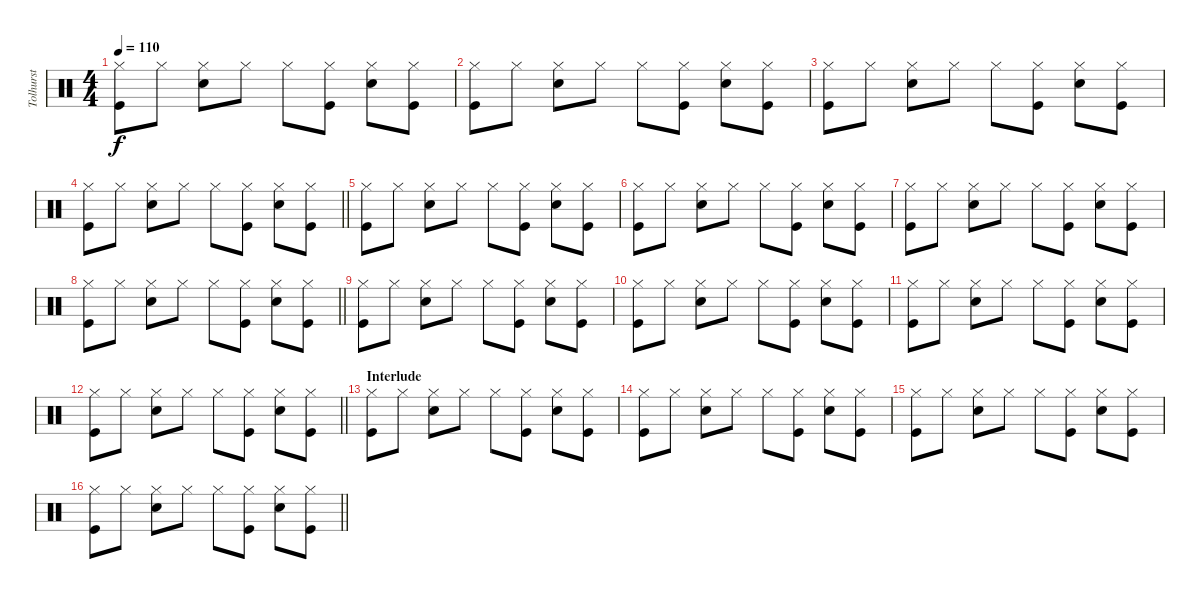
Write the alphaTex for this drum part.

\track ("Tolhurst" "Tolhurst") {instrument percussion}
\staff {score}
\articulation defaults
\ts (4 4)
\tempo 110
\clef neutral
\ks c
("Hi-Hat (closed)" "Kick (hit)").8{dy f} "Hi-Hat (closed)".8 ("Hi-Hat (closed)" "Electric Snare (hit)").8 "Hi-Hat (closed)".8 "Hi-Hat (closed)".8 ("Hi-Hat (closed)" "Kick (hit)").8 ("Hi-Hat (closed)" "Electric Snare (hit)").8 ("Hi-Hat (closed)" "Kick (hit)").8 |
("Hi-Hat (closed)" "Kick (hit)").8 "Hi-Hat (closed)".8 ("Hi-Hat (closed)" "Electric Snare (hit)").8 "Hi-Hat (closed)".8 "Hi-Hat (closed)".8 ("Hi-Hat (closed)" "Kick (hit)").8 ("Hi-Hat (closed)" "Electric Snare (hit)").8 ("Hi-Hat (closed)" "Kick (hit)").8 |
("Hi-Hat (closed)" "Kick (hit)").8 "Hi-Hat (closed)".8 ("Hi-Hat (closed)" "Electric Snare (hit)").8 "Hi-Hat (closed)".8 "Hi-Hat (closed)".8 ("Hi-Hat (closed)" "Kick (hit)").8 ("Hi-Hat (closed)" "Electric Snare (hit)").8 ("Hi-Hat (closed)" "Kick (hit)").8 |
\barLineRight lightlight
("Hi-Hat (closed)" "Kick (hit)").8 "Hi-Hat (closed)".8 ("Hi-Hat (closed)" "Electric Snare (hit)").8 "Hi-Hat (closed)".8 "Hi-Hat (closed)".8 ("Hi-Hat (closed)" "Kick (hit)").8 ("Hi-Hat (closed)" "Electric Snare (hit)").8 ("Hi-Hat (closed)" "Kick (hit)").8 |
("Hi-Hat (closed)" "Kick (hit)").8 "Hi-Hat (closed)".8 ("Hi-Hat (closed)" "Electric Snare (hit)").8 "Hi-Hat (closed)".8 "Hi-Hat (closed)".8 ("Hi-Hat (closed)" "Kick (hit)").8 ("Hi-Hat (closed)" "Electric Snare (hit)").8 ("Hi-Hat (closed)" "Kick (hit)").8 |
("Hi-Hat (closed)" "Kick (hit)").8 "Hi-Hat (closed)".8 ("Hi-Hat (closed)" "Electric Snare (hit)").8 "Hi-Hat (closed)".8 "Hi-Hat (closed)".8 ("Hi-Hat (closed)" "Kick (hit)").8 ("Hi-Hat (closed)" "Electric Snare (hit)").8 ("Hi-Hat (closed)" "Kick (hit)").8 |
("Hi-Hat (closed)" "Kick (hit)").8 "Hi-Hat (closed)".8 ("Hi-Hat (closed)" "Electric Snare (hit)").8 "Hi-Hat (closed)".8 "Hi-Hat (closed)".8 ("Hi-Hat (closed)" "Kick (hit)").8 ("Hi-Hat (closed)" "Electric Snare (hit)").8 ("Hi-Hat (closed)" "Kick (hit)").8 |
\barLineRight lightlight
("Hi-Hat (closed)" "Kick (hit)").8 "Hi-Hat (closed)".8 ("Hi-Hat (closed)" "Electric Snare (hit)").8 "Hi-Hat (closed)".8 "Hi-Hat (closed)".8 ("Hi-Hat (closed)" "Kick (hit)").8 ("Hi-Hat (closed)" "Electric Snare (hit)").8 ("Hi-Hat (closed)" "Kick (hit)").8 |
("Hi-Hat (closed)" "Kick (hit)").8 "Hi-Hat (closed)".8 ("Hi-Hat (closed)" "Electric Snare (hit)").8 "Hi-Hat (closed)".8 "Hi-Hat (closed)".8 ("Hi-Hat (closed)" "Kick (hit)").8 ("Hi-Hat (closed)" "Electric Snare (hit)").8 ("Hi-Hat (closed)" "Kick (hit)").8 |
("Hi-Hat (closed)" "Kick (hit)").8 "Hi-Hat (closed)".8 ("Hi-Hat (closed)" "Electric Snare (hit)").8 "Hi-Hat (closed)".8 "Hi-Hat (closed)".8 ("Hi-Hat (closed)" "Kick (hit)").8 ("Hi-Hat (closed)" "Electric Snare (hit)").8 ("Hi-Hat (closed)" "Kick (hit)").8 |
("Hi-Hat (closed)" "Kick (hit)").8 "Hi-Hat (closed)".8 ("Hi-Hat (closed)" "Electric Snare (hit)").8 "Hi-Hat (closed)".8 "Hi-Hat (closed)".8 ("Hi-Hat (closed)" "Kick (hit)").8 ("Hi-Hat (closed)" "Electric Snare (hit)").8 ("Hi-Hat (closed)" "Kick (hit)").8 |
\barLineRight lightlight
("Hi-Hat (closed)" "Kick (hit)").8 "Hi-Hat (closed)".8 ("Hi-Hat (closed)" "Electric Snare (hit)").8 "Hi-Hat (closed)".8 "Hi-Hat (closed)".8 ("Hi-Hat (closed)" "Kick (hit)").8 ("Hi-Hat (closed)" "Electric Snare (hit)").8 ("Hi-Hat (closed)" "Kick (hit)").8 |
\section ("" "Interlude")
("Hi-Hat (closed)" "Kick (hit)").8 "Hi-Hat (closed)".8 ("Hi-Hat (closed)" "Electric Snare (hit)").8 "Hi-Hat (closed)".8 "Hi-Hat (closed)".8 ("Hi-Hat (closed)" "Kick (hit)").8 ("Hi-Hat (closed)" "Electric Snare (hit)").8 ("Hi-Hat (closed)" "Kick (hit)").8 |
("Hi-Hat (closed)" "Kick (hit)").8 "Hi-Hat (closed)".8 ("Hi-Hat (closed)" "Electric Snare (hit)").8 "Hi-Hat (closed)".8 "Hi-Hat (closed)".8 ("Hi-Hat (closed)" "Kick (hit)").8 ("Hi-Hat (closed)" "Electric Snare (hit)").8 ("Hi-Hat (closed)" "Kick (hit)").8 |
("Hi-Hat (closed)" "Kick (hit)").8 "Hi-Hat (closed)".8 ("Hi-Hat (closed)" "Electric Snare (hit)").8 "Hi-Hat (closed)".8 "Hi-Hat (closed)".8 ("Hi-Hat (closed)" "Kick (hit)").8 ("Hi-Hat (closed)" "Electric Snare (hit)").8 ("Hi-Hat (closed)" "Kick (hit)").8 |
\barLineRight lightlight
("Hi-Hat (closed)" "Kick (hit)").8 "Hi-Hat (closed)".8 ("Hi-Hat (closed)" "Electric Snare (hit)").8 "Hi-Hat (closed)".8 "Hi-Hat (closed)".8 ("Hi-Hat (closed)" "Kick (hit)").8 ("Hi-Hat (closed)" "Electric Snare (hit)").8 ("Hi-Hat (closed)" "Kick (hit)").8
